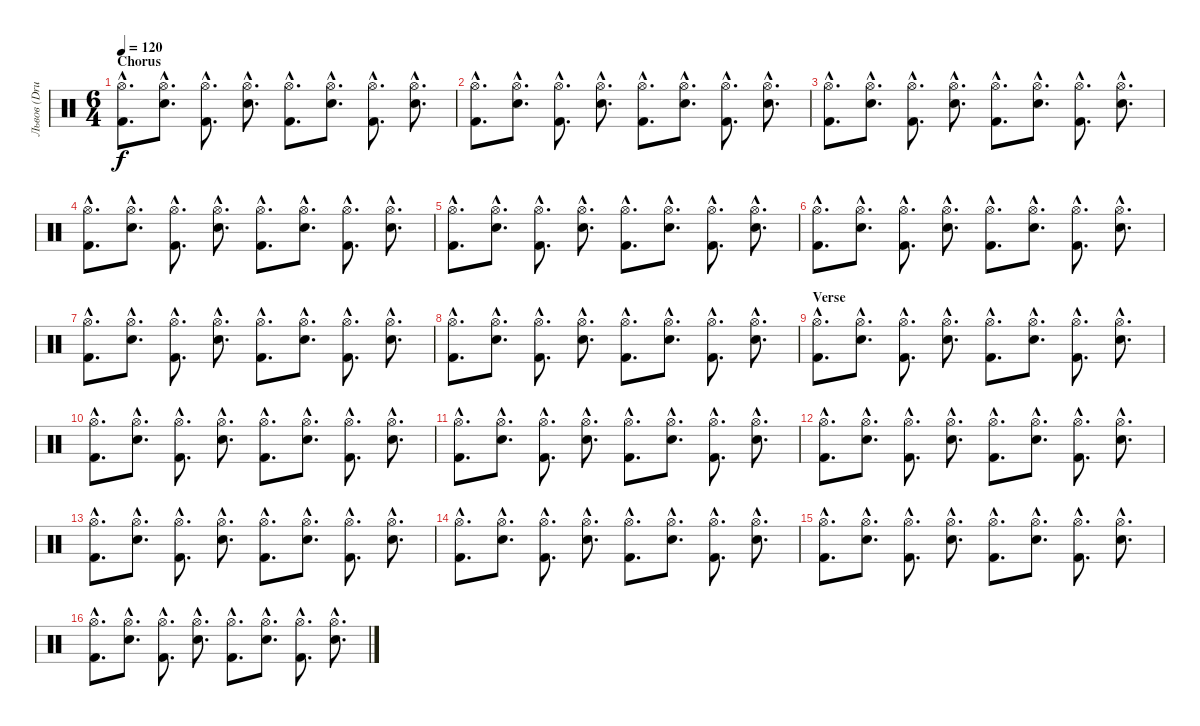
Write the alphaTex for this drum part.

\track ("Львов (Drums)" "Львов (Dru") {instrument percussion}
\staff {score}
\articulation defaults
\ts (6 4)
\section ("" "Chorus")
\tempo 120
\clef neutral
\ks c
("Kick (hit) 2"{hac} "Hi-Hat (open)"{hac}).8{d dy f} ("Electric Snare (hit)"{hac} "Hi-Hat (open)"{hac}).8{d} ("Kick (hit) 2"{hac} "Hi-Hat (open)"{hac}).8{d} ("Electric Snare (hit)"{hac} "Hi-Hat (open)"{hac}).8{d} ("Kick (hit) 2"{hac} "Hi-Hat (open)"{hac}).8{d} ("Electric Snare (hit)"{hac} "Hi-Hat (open)"{hac}).8{d} ("Kick (hit) 2"{hac} "Hi-Hat (open)"{hac}).8{d} ("Electric Snare (hit)"{hac} "Hi-Hat (open)"{hac}).8{d} |
("Kick (hit) 2"{hac} "Hi-Hat (open)"{hac}).8{d} ("Electric Snare (hit)"{hac} "Hi-Hat (open)"{hac}).8{d} ("Kick (hit) 2"{hac} "Hi-Hat (open)"{hac}).8{d} ("Electric Snare (hit)"{hac} "Hi-Hat (open)"{hac}).8{d} ("Kick (hit) 2"{hac} "Hi-Hat (open)"{hac}).8{d} ("Electric Snare (hit)"{hac} "Hi-Hat (open)"{hac}).8{d} ("Kick (hit) 2"{hac} "Hi-Hat (open)"{hac}).8{d} ("Electric Snare (hit)"{hac} "Hi-Hat (open)"{hac}).8{d} |
("Kick (hit) 2"{hac} "Hi-Hat (open)"{hac}).8{d} ("Electric Snare (hit)"{hac} "Hi-Hat (open)"{hac}).8{d} ("Kick (hit) 2"{hac} "Hi-Hat (open)"{hac}).8{d} ("Electric Snare (hit)"{hac} "Hi-Hat (open)"{hac}).8{d} ("Kick (hit) 2"{hac} "Hi-Hat (open)"{hac}).8{d} ("Electric Snare (hit)"{hac} "Hi-Hat (open)"{hac}).8{d} ("Kick (hit) 2"{hac} "Hi-Hat (open)"{hac}).8{d} ("Electric Snare (hit)"{hac} "Hi-Hat (open)"{hac}).8{d} |
("Kick (hit) 2"{hac} "Hi-Hat (open)"{hac}).8{d} ("Electric Snare (hit)"{hac} "Hi-Hat (open)"{hac}).8{d} ("Kick (hit) 2"{hac} "Hi-Hat (open)"{hac}).8{d} ("Electric Snare (hit)"{hac} "Hi-Hat (open)"{hac}).8{d} ("Kick (hit) 2"{hac} "Hi-Hat (open)"{hac}).8{d} ("Electric Snare (hit)"{hac} "Hi-Hat (open)"{hac}).8{d} ("Kick (hit) 2"{hac} "Hi-Hat (open)"{hac}).8{d} ("Electric Snare (hit)"{hac} "Hi-Hat (open)"{hac}).8{d} |
("Kick (hit) 2"{hac} "Hi-Hat (open)"{hac}).8{d} ("Electric Snare (hit)"{hac} "Hi-Hat (open)"{hac}).8{d} ("Kick (hit) 2"{hac} "Hi-Hat (open)"{hac}).8{d} ("Electric Snare (hit)"{hac} "Hi-Hat (open)"{hac}).8{d} ("Kick (hit) 2"{hac} "Hi-Hat (open)"{hac}).8{d} ("Electric Snare (hit)"{hac} "Hi-Hat (open)"{hac}).8{d} ("Kick (hit) 2"{hac} "Hi-Hat (open)"{hac}).8{d} ("Electric Snare (hit)"{hac} "Hi-Hat (open)"{hac}).8{d} |
("Kick (hit) 2"{hac} "Hi-Hat (open)"{hac}).8{d} ("Electric Snare (hit)"{hac} "Hi-Hat (open)"{hac}).8{d} ("Kick (hit) 2"{hac} "Hi-Hat (open)"{hac}).8{d} ("Electric Snare (hit)"{hac} "Hi-Hat (open)"{hac}).8{d} ("Kick (hit) 2"{hac} "Hi-Hat (open)"{hac}).8{d} ("Electric Snare (hit)"{hac} "Hi-Hat (open)"{hac}).8{d} ("Kick (hit) 2"{hac} "Hi-Hat (open)"{hac}).8{d} ("Electric Snare (hit)"{hac} "Hi-Hat (open)"{hac}).8{d} |
("Kick (hit) 2"{hac} "Hi-Hat (open)"{hac}).8{d} ("Electric Snare (hit)"{hac} "Hi-Hat (open)"{hac}).8{d} ("Kick (hit) 2"{hac} "Hi-Hat (open)"{hac}).8{d} ("Electric Snare (hit)"{hac} "Hi-Hat (open)"{hac}).8{d} ("Kick (hit) 2"{hac} "Hi-Hat (open)"{hac}).8{d} ("Electric Snare (hit)"{hac} "Hi-Hat (open)"{hac}).8{d} ("Kick (hit) 2"{hac} "Hi-Hat (open)"{hac}).8{d} ("Electric Snare (hit)"{hac} "Hi-Hat (open)"{hac}).8{d} |
("Kick (hit) 2"{hac} "Hi-Hat (open)"{hac}).8{d} ("Electric Snare (hit)"{hac} "Hi-Hat (open)"{hac}).8{d} ("Kick (hit) 2"{hac} "Hi-Hat (open)"{hac}).8{d} ("Electric Snare (hit)"{hac} "Hi-Hat (open)"{hac}).8{d} ("Kick (hit) 2"{hac} "Hi-Hat (open)"{hac}).8{d} ("Electric Snare (hit)"{hac} "Hi-Hat (open)"{hac}).8{d} ("Kick (hit) 2"{hac} "Hi-Hat (open)"{hac}).8{d} ("Electric Snare (hit)"{hac} "Hi-Hat (open)"{hac}).8{d} |
\section ("" "Verse")
("Kick (hit) 2"{hac} "Hi-Hat (open)"{hac}).8{d} ("Electric Snare (hit)"{hac} "Hi-Hat (open)"{hac}).8{d} ("Kick (hit) 2"{hac} "Hi-Hat (open)"{hac}).8{d} ("Electric Snare (hit)"{hac} "Hi-Hat (open)"{hac}).8{d} ("Kick (hit) 2"{hac} "Hi-Hat (open)"{hac}).8{d} ("Electric Snare (hit)"{hac} "Hi-Hat (open)"{hac}).8{d} ("Kick (hit) 2"{hac} "Hi-Hat (open)"{hac}).8{d} ("Electric Snare (hit)"{hac} "Hi-Hat (open)"{hac}).8{d} |
("Kick (hit) 2"{hac} "Hi-Hat (open)"{hac}).8{d} ("Electric Snare (hit)"{hac} "Hi-Hat (open)"{hac}).8{d} ("Kick (hit) 2"{hac} "Hi-Hat (open)"{hac}).8{d} ("Electric Snare (hit)"{hac} "Hi-Hat (open)"{hac}).8{d} ("Kick (hit) 2"{hac} "Hi-Hat (open)"{hac}).8{d} ("Electric Snare (hit)"{hac} "Hi-Hat (open)"{hac}).8{d} ("Kick (hit) 2"{hac} "Hi-Hat (open)"{hac}).8{d} ("Electric Snare (hit)"{hac} "Hi-Hat (open)"{hac}).8{d} |
("Kick (hit) 2"{hac} "Hi-Hat (open)"{hac}).8{d} ("Electric Snare (hit)"{hac} "Hi-Hat (open)"{hac}).8{d} ("Kick (hit) 2"{hac} "Hi-Hat (open)"{hac}).8{d} ("Electric Snare (hit)"{hac} "Hi-Hat (open)"{hac}).8{d} ("Kick (hit) 2"{hac} "Hi-Hat (open)"{hac}).8{d} ("Electric Snare (hit)"{hac} "Hi-Hat (open)"{hac}).8{d} ("Kick (hit) 2"{hac} "Hi-Hat (open)"{hac}).8{d} ("Electric Snare (hit)"{hac} "Hi-Hat (open)"{hac}).8{d} |
("Kick (hit) 2"{hac} "Hi-Hat (open)"{hac}).8{d} ("Electric Snare (hit)"{hac} "Hi-Hat (open)"{hac}).8{d} ("Kick (hit) 2"{hac} "Hi-Hat (open)"{hac}).8{d} ("Electric Snare (hit)"{hac} "Hi-Hat (open)"{hac}).8{d} ("Kick (hit) 2"{hac} "Hi-Hat (open)"{hac}).8{d} ("Electric Snare (hit)"{hac} "Hi-Hat (open)"{hac}).8{d} ("Kick (hit) 2"{hac} "Hi-Hat (open)"{hac}).8{d} ("Electric Snare (hit)"{hac} "Hi-Hat (open)"{hac}).8{d} |
("Kick (hit) 2"{hac} "Hi-Hat (open)"{hac}).8{d} ("Electric Snare (hit)"{hac} "Hi-Hat (open)"{hac}).8{d} ("Kick (hit) 2"{hac} "Hi-Hat (open)"{hac}).8{d} ("Electric Snare (hit)"{hac} "Hi-Hat (open)"{hac}).8{d} ("Kick (hit) 2"{hac} "Hi-Hat (open)"{hac}).8{d} ("Electric Snare (hit)"{hac} "Hi-Hat (open)"{hac}).8{d} ("Kick (hit) 2"{hac} "Hi-Hat (open)"{hac}).8{d} ("Electric Snare (hit)"{hac} "Hi-Hat (open)"{hac}).8{d} |
("Kick (hit) 2"{hac} "Hi-Hat (open)"{hac}).8{d} ("Electric Snare (hit)"{hac} "Hi-Hat (open)"{hac}).8{d} ("Kick (hit) 2"{hac} "Hi-Hat (open)"{hac}).8{d} ("Electric Snare (hit)"{hac} "Hi-Hat (open)"{hac}).8{d} ("Kick (hit) 2"{hac} "Hi-Hat (open)"{hac}).8{d} ("Electric Snare (hit)"{hac} "Hi-Hat (open)"{hac}).8{d} ("Kick (hit) 2"{hac} "Hi-Hat (open)"{hac}).8{d} ("Electric Snare (hit)"{hac} "Hi-Hat (open)"{hac}).8{d} |
("Kick (hit) 2"{hac} "Hi-Hat (open)"{hac}).8{d} ("Electric Snare (hit)"{hac} "Hi-Hat (open)"{hac}).8{d} ("Kick (hit) 2"{hac} "Hi-Hat (open)"{hac}).8{d} ("Electric Snare (hit)"{hac} "Hi-Hat (open)"{hac}).8{d} ("Kick (hit) 2"{hac} "Hi-Hat (open)"{hac}).8{d} ("Electric Snare (hit)"{hac} "Hi-Hat (open)"{hac}).8{d} ("Kick (hit) 2"{hac} "Hi-Hat (open)"{hac}).8{d} ("Electric Snare (hit)"{hac} "Hi-Hat (open)"{hac}).8{d} |
("Kick (hit) 2"{hac} "Hi-Hat (open)"{hac}).8{d} ("Electric Snare (hit)"{hac} "Hi-Hat (open)"{hac}).8{d} ("Kick (hit) 2"{hac} "Hi-Hat (open)"{hac}).8{d} ("Electric Snare (hit)"{hac} "Hi-Hat (open)"{hac}).8{d} ("Kick (hit) 2"{hac} "Hi-Hat (open)"{hac}).8{d} ("Electric Snare (hit)"{hac} "Hi-Hat (open)"{hac}).8{d} ("Kick (hit) 2"{hac} "Hi-Hat (open)"{hac}).8{d} ("Electric Snare (hit)"{hac} "Hi-Hat (open)"{hac}).8{d}
